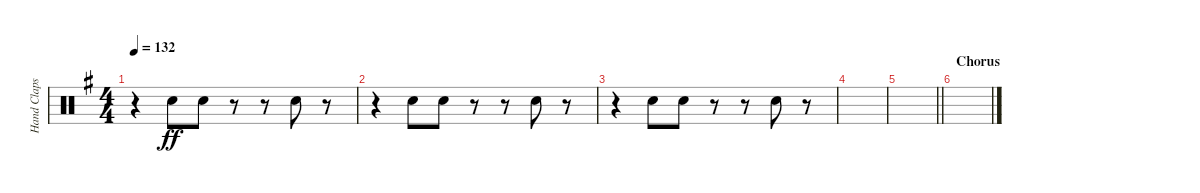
\track ("Hand Claps" "Hand Claps") {instrument percussion}
\staff {score}
\articulation defaults
\ts (4 4)
\tempo 132
\clef neutral
\ks g
r.4{dy ff} "Hand Clap (hit)".8 "Hand Clap (hit)".8 r.8 r.8 "Hand Clap (hit)".8 r.8 |
r.4 "Hand Clap (hit)".8 "Hand Clap (hit)".8 r.8 r.8 "Hand Clap (hit)".8 r.8 |
r.4 "Hand Clap (hit)".8 "Hand Clap (hit)".8 r.8 r.8 "Hand Clap (hit)".8 r.8 |
|
\barLineRight lightlight
|
\section ("" "Chorus")
